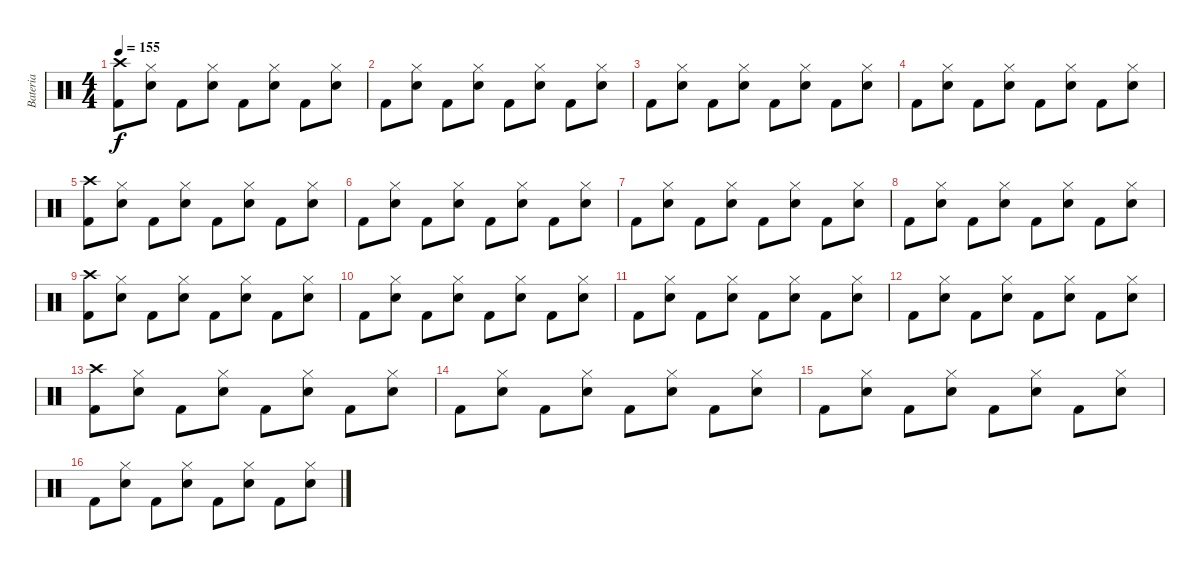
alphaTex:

\track ("Bateria" "Bateria") {instrument percussion}
\staff {score}
\articulation defaults
\ts (4 4)
\tempo 155
\clef neutral
\ks c
("Kick (hit) 2" "Crash high (hit)").8{dy f} ("Electric Snare (hit)" "Hi-Hat (closed)").8 "Kick (hit) 2".8 ("Electric Snare (hit)" "Hi-Hat (closed)").8 "Kick (hit) 2".8 ("Electric Snare (hit)" "Hi-Hat (closed)").8 "Kick (hit) 2".8 ("Electric Snare (hit)" "Hi-Hat (closed)").8 |
"Kick (hit) 2".8 ("Electric Snare (hit)" "Hi-Hat (closed)").8 "Kick (hit) 2".8 ("Electric Snare (hit)" "Hi-Hat (closed)").8 "Kick (hit) 2".8 ("Electric Snare (hit)" "Hi-Hat (closed)").8 "Kick (hit) 2".8 ("Electric Snare (hit)" "Hi-Hat (closed)").8 |
"Kick (hit) 2".8 ("Electric Snare (hit)" "Hi-Hat (closed)").8 "Kick (hit) 2".8 ("Electric Snare (hit)" "Hi-Hat (closed)").8 "Kick (hit) 2".8 ("Electric Snare (hit)" "Hi-Hat (closed)").8 "Kick (hit) 2".8 ("Electric Snare (hit)" "Hi-Hat (closed)").8 |
"Kick (hit) 2".8 ("Electric Snare (hit)" "Hi-Hat (closed)").8 "Kick (hit) 2".8 ("Electric Snare (hit)" "Hi-Hat (closed)").8 "Kick (hit) 2".8 ("Electric Snare (hit)" "Hi-Hat (closed)").8 "Kick (hit) 2".8 ("Electric Snare (hit)" "Hi-Hat (closed)").8 |
("Kick (hit) 2" "Crash high (hit)").8 ("Electric Snare (hit)" "Hi-Hat (closed)").8 "Kick (hit) 2".8 ("Electric Snare (hit)" "Hi-Hat (closed)").8 "Kick (hit) 2".8 ("Electric Snare (hit)" "Hi-Hat (closed)").8 "Kick (hit) 2".8 ("Electric Snare (hit)" "Hi-Hat (closed)").8 |
"Kick (hit) 2".8 ("Electric Snare (hit)" "Hi-Hat (closed)").8 "Kick (hit) 2".8 ("Electric Snare (hit)" "Hi-Hat (closed)").8 "Kick (hit) 2".8 ("Electric Snare (hit)" "Hi-Hat (closed)").8 "Kick (hit) 2".8 ("Electric Snare (hit)" "Hi-Hat (closed)").8 |
"Kick (hit) 2".8 ("Electric Snare (hit)" "Hi-Hat (closed)").8 "Kick (hit) 2".8 ("Electric Snare (hit)" "Hi-Hat (closed)").8 "Kick (hit) 2".8 ("Electric Snare (hit)" "Hi-Hat (closed)").8 "Kick (hit) 2".8 ("Electric Snare (hit)" "Hi-Hat (closed)").8 |
"Kick (hit) 2".8 ("Electric Snare (hit)" "Hi-Hat (closed)").8 "Kick (hit) 2".8 ("Electric Snare (hit)" "Hi-Hat (closed)").8 "Kick (hit) 2".8 ("Electric Snare (hit)" "Hi-Hat (closed)").8 "Kick (hit) 2".8 ("Electric Snare (hit)" "Hi-Hat (closed)").8 |
("Kick (hit) 2" "Crash high (hit)").8 ("Electric Snare (hit)" "Hi-Hat (closed)").8 "Kick (hit) 2".8 ("Electric Snare (hit)" "Hi-Hat (closed)").8 "Kick (hit) 2".8 ("Electric Snare (hit)" "Hi-Hat (closed)").8 "Kick (hit) 2".8 ("Electric Snare (hit)" "Hi-Hat (closed)").8 |
"Kick (hit) 2".8 ("Electric Snare (hit)" "Hi-Hat (closed)").8 "Kick (hit) 2".8 ("Electric Snare (hit)" "Hi-Hat (closed)").8 "Kick (hit) 2".8 ("Electric Snare (hit)" "Hi-Hat (closed)").8 "Kick (hit) 2".8 ("Electric Snare (hit)" "Hi-Hat (closed)").8 |
"Kick (hit) 2".8 ("Electric Snare (hit)" "Hi-Hat (closed)").8 "Kick (hit) 2".8 ("Electric Snare (hit)" "Hi-Hat (closed)").8 "Kick (hit) 2".8 ("Electric Snare (hit)" "Hi-Hat (closed)").8 "Kick (hit) 2".8 ("Electric Snare (hit)" "Hi-Hat (closed)").8 |
"Kick (hit) 2".8 ("Electric Snare (hit)" "Hi-Hat (closed)").8 "Kick (hit) 2".8 ("Electric Snare (hit)" "Hi-Hat (closed)").8 "Kick (hit) 2".8 ("Electric Snare (hit)" "Hi-Hat (closed)").8 "Kick (hit) 2".8 ("Electric Snare (hit)" "Hi-Hat (closed)").8 |
("Kick (hit) 2" "Crash high (hit)").8 ("Electric Snare (hit)" "Hi-Hat (closed)").8 "Kick (hit) 2".8 ("Electric Snare (hit)" "Hi-Hat (closed)").8 "Kick (hit) 2".8 ("Electric Snare (hit)" "Hi-Hat (closed)").8 "Kick (hit) 2".8 ("Electric Snare (hit)" "Hi-Hat (closed)").8 |
"Kick (hit) 2".8 ("Electric Snare (hit)" "Hi-Hat (closed)").8 "Kick (hit) 2".8 ("Electric Snare (hit)" "Hi-Hat (closed)").8 "Kick (hit) 2".8 ("Electric Snare (hit)" "Hi-Hat (closed)").8 "Kick (hit) 2".8 ("Electric Snare (hit)" "Hi-Hat (closed)").8 |
"Kick (hit) 2".8 ("Electric Snare (hit)" "Hi-Hat (closed)").8 "Kick (hit) 2".8 ("Electric Snare (hit)" "Hi-Hat (closed)").8 "Kick (hit) 2".8 ("Electric Snare (hit)" "Hi-Hat (closed)").8 "Kick (hit) 2".8 ("Electric Snare (hit)" "Hi-Hat (closed)").8 |
"Kick (hit) 2".8 ("Electric Snare (hit)" "Hi-Hat (closed)").8 "Kick (hit) 2".8 ("Electric Snare (hit)" "Hi-Hat (closed)").8 "Kick (hit) 2".8 ("Electric Snare (hit)" "Hi-Hat (closed)").8 "Kick (hit) 2".8 ("Electric Snare (hit)" "Hi-Hat (closed)").8
